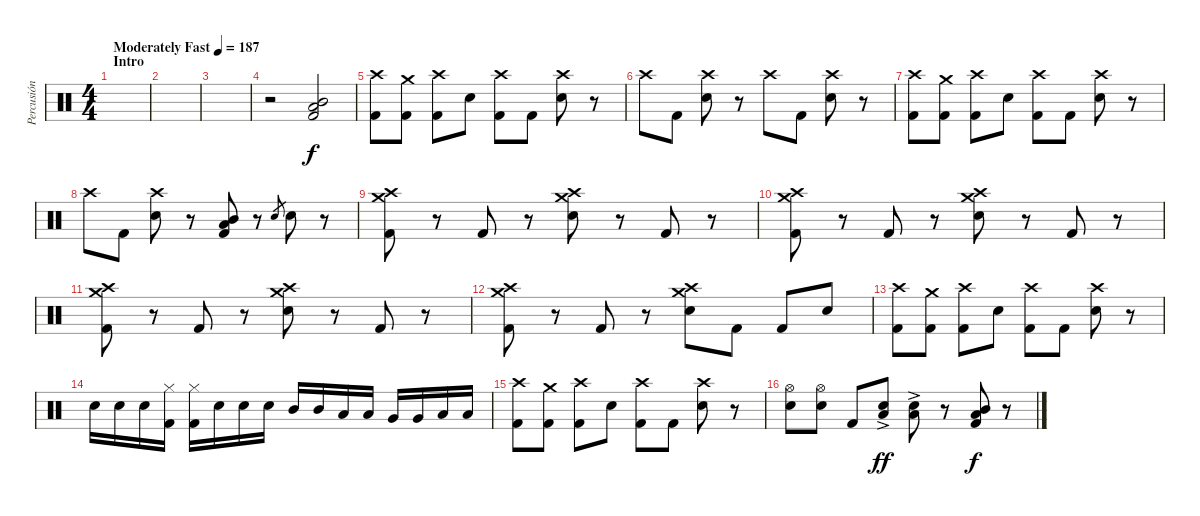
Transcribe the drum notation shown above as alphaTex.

\track ("Percusión" "Percusión") {instrument percussion}
\staff {score}
\articulation defaults
\ts (4 4)
\section ("" "Intro")
\tempo (187 "Moderately Fast")
\clef neutral
\ks c
|
|
|
r.2 ("Mid Tom (hit)" "Low Tom (hit)" "Kick (hit) 2").2 |
("Crash high (hit)" "Kick (hit) 2").8 ("Crash medium (hit)" "Kick (hit) 2").8 ("Crash high (hit)" "Kick (hit) 2").8 "Snare (hit) 2".8 ("Crash high (hit)" "Kick (hit) 2").8 "Kick (hit) 2".8 ("Crash high (hit)" "Snare (hit) 2").8 r.8 |
"Crash high (hit)".8 "Kick (hit) 2".8 ("Crash high (hit)" "Snare (hit) 2").8 r.8 "Crash high (hit)".8 "Kick (hit) 2".8 ("Crash high (hit)" "Snare (hit) 2").8 r.8 |
("Crash high (hit)" "Kick (hit) 2").8 ("Crash medium (hit)" "Kick (hit) 2").8 ("Crash high (hit)" "Kick (hit) 2").8 "Snare (hit) 2".8 ("Crash high (hit)" "Kick (hit) 2").8 "Kick (hit) 2".8 ("Crash high (hit)" "Snare (hit) 2").8 r.8 |
"Crash high (hit)".8 "Kick (hit) 2".8 ("Crash high (hit)" "Snare (hit) 2").8 r.8 ("Mid Tom (hit)" "Low Tom (hit)" "Kick (hit) 2").8 r.8 "Snare (hit) 2".8{gr} "Snare (hit) 2".8 r.8 |
("Crash high (hit)" "Crash medium (hit)" "Kick (hit) 2").8 r.8 "Kick (hit) 2".8 r.8 ("Crash high (hit)" "Crash medium (hit)" "Snare (hit) 2").8 r.8 "Kick (hit) 2".8 r.8 |
("Crash high (hit)" "Crash medium (hit)" "Kick (hit) 2").8 r.8 "Kick (hit) 2".8 r.8 ("Crash high (hit)" "Crash medium (hit)" "Snare (hit) 2").8 r.8 "Kick (hit) 2".8 r.8 |
("Crash high (hit)" "Crash medium (hit)" "Kick (hit) 2").8 r.8 "Kick (hit) 2".8 r.8 ("Crash high (hit)" "Crash medium (hit)" "Snare (hit) 2").8 r.8 "Kick (hit) 2".8 r.8 |
("Crash high (hit)" "Crash medium (hit)" "Kick (hit) 2").8 r.8 "Kick (hit) 2".8 r.8 ("Crash high (hit)" "Crash medium (hit)" "Snare (hit) 2").8 "Kick (hit) 2".8 "Kick (hit) 2".8 "Snare (hit) 2".8 |
("Crash high (hit)" "Kick (hit) 2").8 ("Crash medium (hit)" "Kick (hit) 2").8 ("Crash high (hit)" "Kick (hit) 2").8 "Snare (hit) 2".8 ("Crash high (hit)" "Kick (hit) 2").8 "Kick (hit) 2".8 ("Crash high (hit)" "Snare (hit) 2").8 r.8 |
"Snare (hit) 2".16 "Snare (hit) 2".16 "Snare (hit) 2".16 ("Hi-Hat (closed)" "Kick (hit) 2").16 ("Hi-Hat (closed)" "Kick (hit) 2").16 "Snare (hit) 2".16 "Snare (hit) 2".16 "Snare (hit) 2".16 "Mid Tom (hit)".16 "Mid Tom (hit)".16 "Low Tom (hit)".16 "Low Tom (hit)".16 "Very Low Tom (hit)".16 "Very Low Tom (hit)".16 "Low Tom (hit)".16 "Low Tom (hit)".16 |
("Crash high (hit)" "Kick (hit) 2").8 ("Crash medium (hit)" "Kick (hit) 2").8 ("Crash high (hit)" "Kick (hit) 2").8 "Snare (hit) 2".8 ("Crash high (hit)" "Kick (hit) 2").8 "Kick (hit) 2".8 ("Crash high (hit)" "Snare (hit) 2").8 r.8 |
("Hi-Hat (open)" "Snare (hit) 2").8 ("Hi-Hat (open)" "Snare (hit) 2").8 "Kick (hit) 2".8 ("Snare (hit) 2" "Low Tom (hit)"{ac}).8{dy ff} ("Snare (hit) 2" "Low Tom (hit)"{ac}).8 r.8 ("Mid Tom (hit)" "Low Tom (hit)" "Kick (hit) 2").8{dy f} r.8
